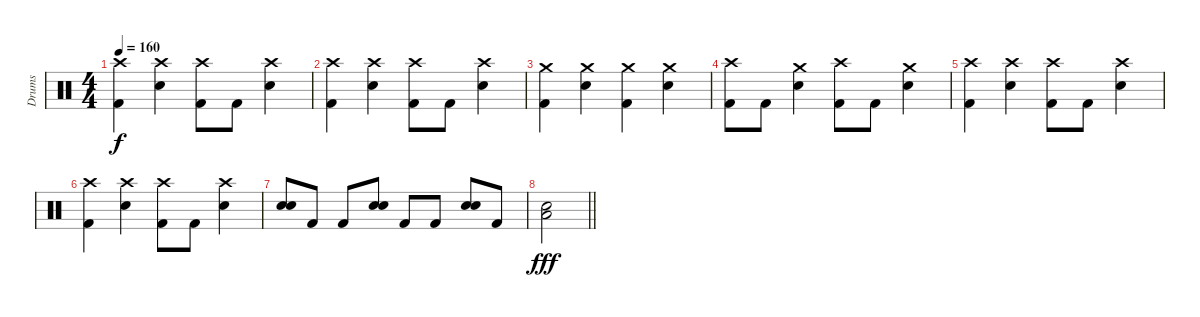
\track ("Drums " "Drums ") {instrument percussion}
\staff {score}
\articulation defaults
\ts (4 4)
\tempo 160
\clef neutral
\ks c
("Crash high (hit)" "Kick (hit) 2").4{dy f} ("Crash high (hit)" "Snare (hit) 2").4 ("Crash high (hit)" "Kick (hit) 2").8 "Kick (hit) 2".8 ("Crash high (hit)" "Snare (hit) 2").4 |
("Crash high (hit)" "Kick (hit) 2").4 ("Crash high (hit)" "Snare (hit) 2").4 ("Crash high (hit)" "Kick (hit) 2").8 "Kick (hit) 2".8 ("Crash high (hit)" "Snare (hit) 2").4 |
("Crash medium (hit)" "Kick (hit) 2").4 ("Crash medium (hit)" "Snare (hit) 2").4 ("Crash medium (hit)" "Kick (hit) 2").4 ("Crash medium (hit)" "Snare (hit) 2").4 |
("Crash high (hit)" "Kick (hit) 2").8 "Kick (hit) 2".8 ("Crash medium (hit)" "Snare (hit) 2").4 ("Crash high (hit)" "Kick (hit) 2").8 "Kick (hit) 2".8 ("Crash medium (hit)" "Snare (hit) 2").4 |
("Crash high (hit)" "Kick (hit) 2").4 ("Crash high (hit)" "Snare (hit) 2").4 ("Crash high (hit)" "Kick (hit) 2").8 "Kick (hit) 2".8 ("Crash high (hit)" "Snare (hit) 2").4 |
("Crash high (hit)" "Kick (hit) 2").4 ("Crash high (hit)" "Snare (hit) 2").4 ("Crash high (hit)" "Kick (hit) 2").8 "Kick (hit) 2".8 ("Crash high (hit)" "Snare (hit) 2").4 |
("Snare (hit) 2" "Snare (hit) 2").8 "Kick (hit) 2".8 "Kick (hit) 2".8 ("Snare (hit) 2" "Snare (hit) 2").8 "Kick (hit) 2".8 "Kick (hit) 2".8 ("Snare (hit) 2" "Snare (hit) 2").8 "Kick (hit) 2".8 |
\barLineRight lightlight
("Low Floor Tom (hit)" "Snare (hit) 2").2{dy fff}
